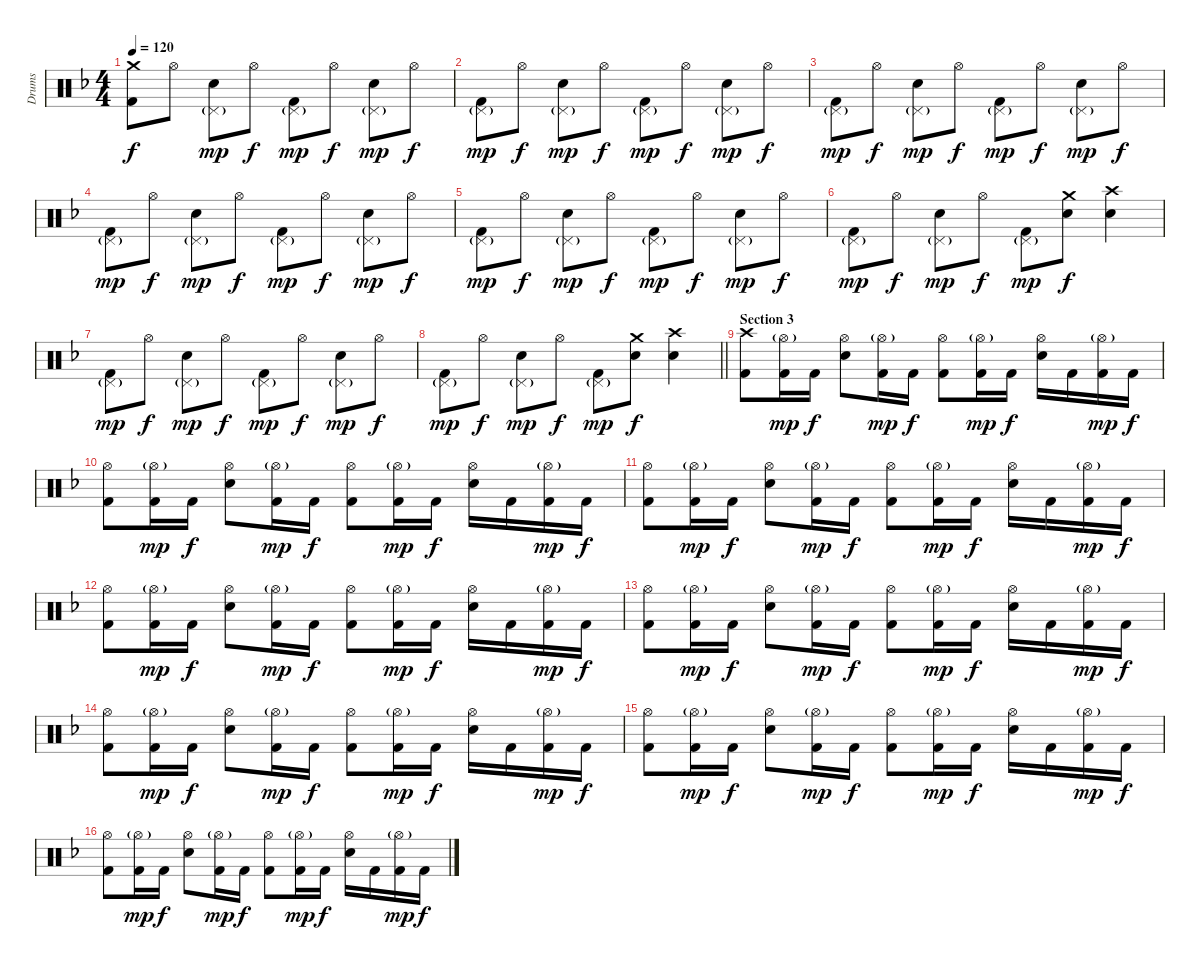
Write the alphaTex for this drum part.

\track ("Drums" "Drums") {instrument percussion}
\staff {score}
\articulation defaults
\ts (4 4)
\tempo 120
\clef neutral
\ks dminor
("Crash medium (hit)" "Kick (hit) 2").8{dy f} "Hi-Hat (open)".8 ("Pedal Hi-Hat (hit)"{g} "Electric Snare (hit)").8{dy mp} "Hi-Hat (open)".8{dy f} ("Pedal Hi-Hat (hit)"{g} "Kick (hit) 2").8{dy mp} "Hi-Hat (open)".8{dy f} ("Pedal Hi-Hat (hit)"{g} "Electric Snare (hit)").8{dy mp} "Hi-Hat (open)".8{dy f} |
("Pedal Hi-Hat (hit)"{g} "Kick (hit) 2").8{dy mp} "Hi-Hat (open)".8{dy f} ("Pedal Hi-Hat (hit)"{g} "Electric Snare (hit)").8{dy mp} "Hi-Hat (open)".8{dy f} ("Pedal Hi-Hat (hit)"{g} "Kick (hit) 2").8{dy mp} "Hi-Hat (open)".8{dy f} ("Pedal Hi-Hat (hit)"{g} "Electric Snare (hit)").8{dy mp} "Hi-Hat (open)".8{dy f} |
("Pedal Hi-Hat (hit)"{g} "Kick (hit) 2").8{dy mp} "Hi-Hat (open)".8{dy f} ("Pedal Hi-Hat (hit)"{g} "Electric Snare (hit)").8{dy mp} "Hi-Hat (open)".8{dy f} ("Pedal Hi-Hat (hit)"{g} "Kick (hit) 2").8{dy mp} "Hi-Hat (open)".8{dy f} ("Pedal Hi-Hat (hit)"{g} "Electric Snare (hit)").8{dy mp} "Hi-Hat (open)".8{dy f} |
("Pedal Hi-Hat (hit)"{g} "Kick (hit) 2").8{dy mp} "Hi-Hat (open)".8{dy f} ("Pedal Hi-Hat (hit)"{g} "Electric Snare (hit)").8{dy mp} "Hi-Hat (open)".8{dy f} ("Pedal Hi-Hat (hit)"{g} "Kick (hit) 2").8{dy mp} "Hi-Hat (open)".8{dy f} ("Pedal Hi-Hat (hit)"{g} "Electric Snare (hit)").8{dy mp} "Hi-Hat (open)".8{dy f} |
("Pedal Hi-Hat (hit)"{g} "Kick (hit) 2").8{dy mp} "Hi-Hat (open)".8{dy f} ("Pedal Hi-Hat (hit)"{g} "Electric Snare (hit)").8{dy mp} "Hi-Hat (open)".8{dy f} ("Pedal Hi-Hat (hit)"{g} "Kick (hit) 2").8{dy mp} "Hi-Hat (open)".8{dy f} ("Pedal Hi-Hat (hit)"{g} "Electric Snare (hit)").8{dy mp} "Hi-Hat (open)".8{dy f} |
("Pedal Hi-Hat (hit)"{g} "Kick (hit) 2").8{dy mp} "Hi-Hat (open)".8{dy f} ("Pedal Hi-Hat (hit)"{g} "Electric Snare (hit)").8{dy mp} "Hi-Hat (open)".8{dy f} ("Pedal Hi-Hat (hit)"{g} "Kick (hit) 2").8{dy mp} ("Crash medium (hit)" "Electric Snare (hit)").8{dy f} ("Crash high (hit)" "Electric Snare (hit)").4 |
("Pedal Hi-Hat (hit)"{g} "Kick (hit) 2").8{dy mp} "Hi-Hat (open)".8{dy f} ("Pedal Hi-Hat (hit)"{g} "Electric Snare (hit)").8{dy mp} "Hi-Hat (open)".8{dy f} ("Pedal Hi-Hat (hit)"{g} "Kick (hit) 2").8{dy mp} "Hi-Hat (open)".8{dy f} ("Pedal Hi-Hat (hit)"{g} "Electric Snare (hit)").8{dy mp} "Hi-Hat (open)".8{dy f} |
\barLineRight lightlight
("Pedal Hi-Hat (hit)"{g} "Kick (hit) 2").8{dy mp} "Hi-Hat (open)".8{dy f} ("Pedal Hi-Hat (hit)"{g} "Electric Snare (hit)").8{dy mp} "Hi-Hat (open)".8{dy f} ("Pedal Hi-Hat (hit)"{g} "Kick (hit) 2").8{dy mp} ("Crash medium (hit)" "Electric Snare (hit)").8{dy f} ("Crash high (hit)" "Electric Snare (hit)").4 |
\section ("" "Section 3")
("Crash high (hit)" "Kick (hit) 2").8 ("Hi-Hat (open)"{g} "Kick (hit) 2").16{dy mp} "Kick (hit) 2".16{dy f} ("Hi-Hat (open)" "Electric Snare (hit)").8 ("Hi-Hat (open)"{g} "Kick (hit) 2").16{dy mp} "Kick (hit) 2".16{dy f} ("Hi-Hat (open)" "Kick (hit) 2").8 ("Hi-Hat (open)"{g} "Kick (hit) 2").16{dy mp} "Kick (hit) 2".16{dy f} ("Hi-Hat (open)" "Electric Snare (hit)").16 "Kick (hit) 2".16 ("Hi-Hat (open)"{g} "Kick (hit) 2").16{dy mp} "Kick (hit) 2".16{dy f} |
("Hi-Hat (open)" "Kick (hit) 2").8 ("Hi-Hat (open)"{g} "Kick (hit) 2").16{dy mp} "Kick (hit) 2".16{dy f} ("Hi-Hat (open)" "Electric Snare (hit)").8 ("Hi-Hat (open)"{g} "Kick (hit) 2").16{dy mp} "Kick (hit) 2".16{dy f} ("Hi-Hat (open)" "Kick (hit) 2").8 ("Hi-Hat (open)"{g} "Kick (hit) 2").16{dy mp} "Kick (hit) 2".16{dy f} ("Hi-Hat (open)" "Electric Snare (hit)").16 "Kick (hit) 2".16 ("Hi-Hat (open)"{g} "Kick (hit) 2").16{dy mp} "Kick (hit) 2".16{dy f} |
("Hi-Hat (open)" "Kick (hit) 2").8 ("Hi-Hat (open)"{g} "Kick (hit) 2").16{dy mp} "Kick (hit) 2".16{dy f} ("Hi-Hat (open)" "Electric Snare (hit)").8 ("Hi-Hat (open)"{g} "Kick (hit) 2").16{dy mp} "Kick (hit) 2".16{dy f} ("Hi-Hat (open)" "Kick (hit) 2").8 ("Hi-Hat (open)"{g} "Kick (hit) 2").16{dy mp} "Kick (hit) 2".16{dy f} ("Hi-Hat (open)" "Electric Snare (hit)").16 "Kick (hit) 2".16 ("Hi-Hat (open)"{g} "Kick (hit) 2").16{dy mp} "Kick (hit) 2".16{dy f} |
("Hi-Hat (open)" "Kick (hit) 2").8 ("Hi-Hat (open)"{g} "Kick (hit) 2").16{dy mp} "Kick (hit) 2".16{dy f} ("Hi-Hat (open)" "Electric Snare (hit)").8 ("Hi-Hat (open)"{g} "Kick (hit) 2").16{dy mp} "Kick (hit) 2".16{dy f} ("Hi-Hat (open)" "Kick (hit) 2").8 ("Hi-Hat (open)"{g} "Kick (hit) 2").16{dy mp} "Kick (hit) 2".16{dy f} ("Hi-Hat (open)" "Electric Snare (hit)").16 "Kick (hit) 2".16 ("Hi-Hat (open)"{g} "Kick (hit) 2").16{dy mp} "Kick (hit) 2".16{dy f} |
("Hi-Hat (open)" "Kick (hit) 2").8 ("Hi-Hat (open)"{g} "Kick (hit) 2").16{dy mp} "Kick (hit) 2".16{dy f} ("Hi-Hat (open)" "Electric Snare (hit)").8 ("Hi-Hat (open)"{g} "Kick (hit) 2").16{dy mp} "Kick (hit) 2".16{dy f} ("Hi-Hat (open)" "Kick (hit) 2").8 ("Hi-Hat (open)"{g} "Kick (hit) 2").16{dy mp} "Kick (hit) 2".16{dy f} ("Hi-Hat (open)" "Electric Snare (hit)").16 "Kick (hit) 2".16 ("Hi-Hat (open)"{g} "Kick (hit) 2").16{dy mp} "Kick (hit) 2".16{dy f} |
("Hi-Hat (open)" "Kick (hit) 2").8 ("Hi-Hat (open)"{g} "Kick (hit) 2").16{dy mp} "Kick (hit) 2".16{dy f} ("Hi-Hat (open)" "Electric Snare (hit)").8 ("Hi-Hat (open)"{g} "Kick (hit) 2").16{dy mp} "Kick (hit) 2".16{dy f} ("Hi-Hat (open)" "Kick (hit) 2").8 ("Hi-Hat (open)"{g} "Kick (hit) 2").16{dy mp} "Kick (hit) 2".16{dy f} ("Hi-Hat (open)" "Electric Snare (hit)").16 "Kick (hit) 2".16 ("Hi-Hat (open)"{g} "Kick (hit) 2").16{dy mp} "Kick (hit) 2".16{dy f} |
("Hi-Hat (open)" "Kick (hit) 2").8 ("Hi-Hat (open)"{g} "Kick (hit) 2").16{dy mp} "Kick (hit) 2".16{dy f} ("Hi-Hat (open)" "Electric Snare (hit)").8 ("Hi-Hat (open)"{g} "Kick (hit) 2").16{dy mp} "Kick (hit) 2".16{dy f} ("Hi-Hat (open)" "Kick (hit) 2").8 ("Hi-Hat (open)"{g} "Kick (hit) 2").16{dy mp} "Kick (hit) 2".16{dy f} ("Hi-Hat (open)" "Electric Snare (hit)").16 "Kick (hit) 2".16 ("Hi-Hat (open)"{g} "Kick (hit) 2").16{dy mp} "Kick (hit) 2".16{dy f} |
("Hi-Hat (open)" "Kick (hit) 2").8 ("Hi-Hat (open)"{g} "Kick (hit) 2").16{dy mp} "Kick (hit) 2".16{dy f} ("Hi-Hat (open)" "Electric Snare (hit)").8 ("Hi-Hat (open)"{g} "Kick (hit) 2").16{dy mp} "Kick (hit) 2".16{dy f} ("Hi-Hat (open)" "Kick (hit) 2").8 ("Hi-Hat (open)"{g} "Kick (hit) 2").16{dy mp} "Kick (hit) 2".16{dy f} ("Hi-Hat (open)" "Electric Snare (hit)").16 "Kick (hit) 2".16 ("Hi-Hat (open)"{g} "Kick (hit) 2").16{dy mp} "Kick (hit) 2".16{dy f}
